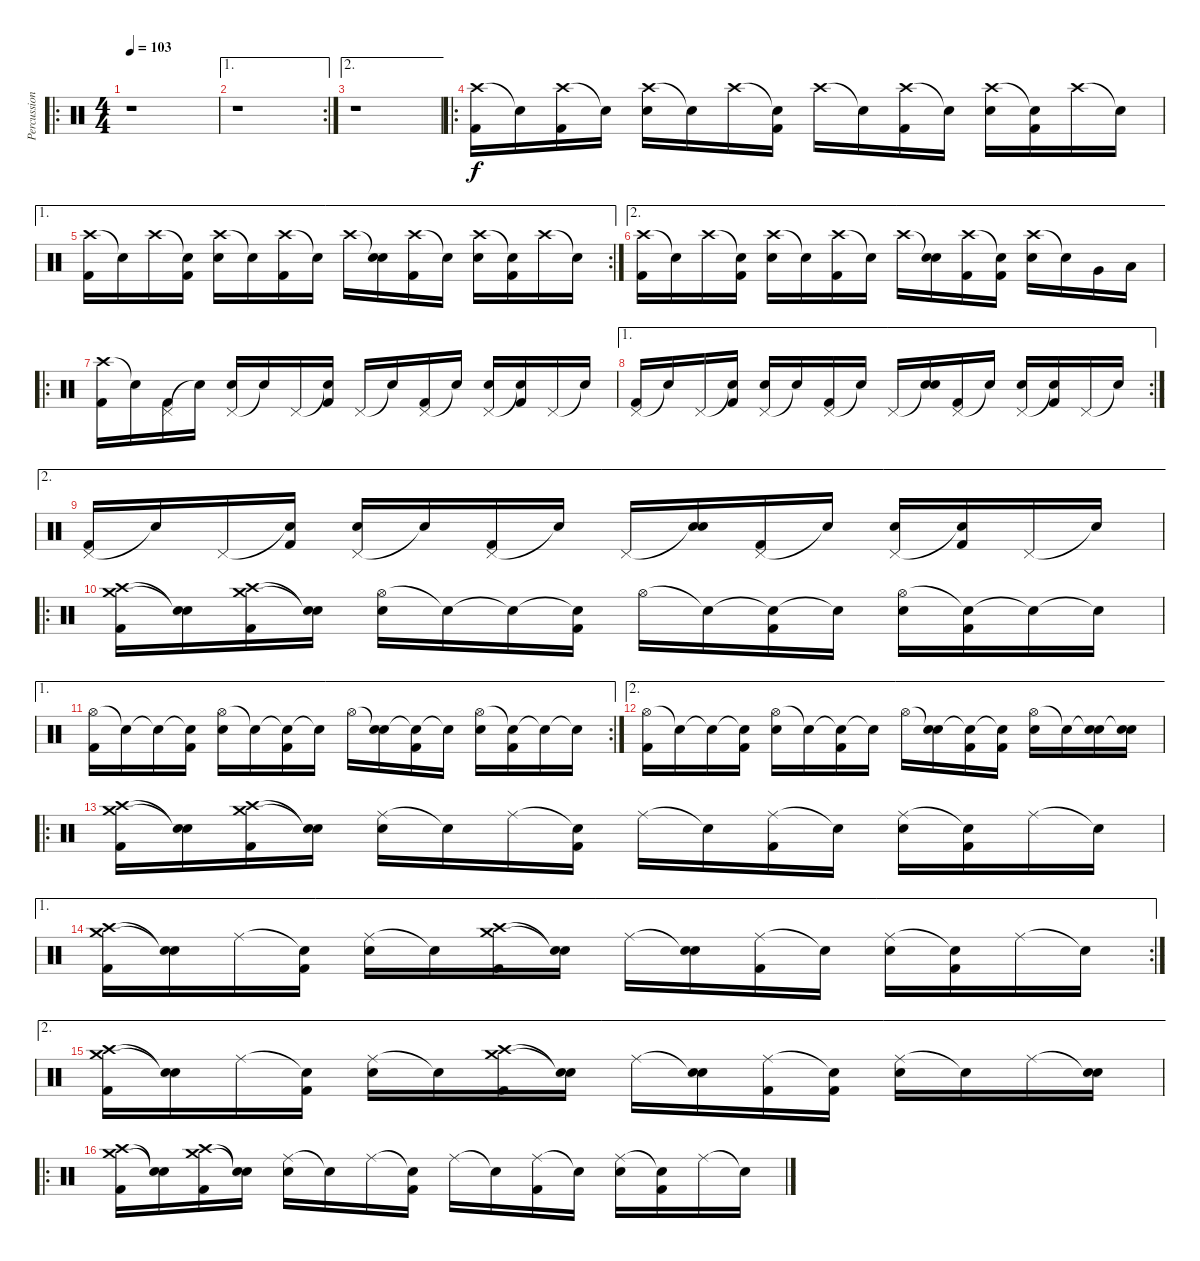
\track ("Percussion" "Percussion") {instrument percussion}
\staff {score}
\articulation defaults
\ro
\ts (4 4)
\tempo 103
\clef neutral
\ks c
r.1{dy f} |
\ae 1
\rc 2
r.1 |
\ae 2
r.1 |
\ro
("Crash high (hit)" "Kick (hit) 2").16 "Snare (hit)"{t}.16 ("Crash high (hit)" "Kick (hit) 2").16 "Snare (hit)"{t}.16 ("Crash high (hit)" "Snare (hit) 2").16 "Snare (hit)"{t}.16 "Crash high (hit)".16 ("Snare (hit)"{t} "Kick (hit) 2").16 "Crash high (hit)".16 "Snare (hit)"{t}.16 ("Crash high (hit)" "Kick (hit) 2").16 "Snare (hit)"{t}.16 ("Crash high (hit)" "Snare (hit) 2").16 ("Snare (hit)"{t} "Kick (hit) 2").16 "Crash high (hit)".16 "Snare (hit)"{t}.16 |
\ae 1
\rc 2
("Crash high (hit)" "Kick (hit) 2").16 "Snare (hit)"{t}.16 "Crash high (hit)".16 ("Snare (hit)"{t} "Kick (hit) 2").16 ("Crash high (hit)" "Snare (hit) 2").16 "Snare (hit)"{t}.16 ("Crash high (hit)" "Kick (hit) 2").16 "Snare (hit)"{t}.16 "Crash high (hit)".16 ("Snare (hit)"{t} "Snare (hit) 2").16 ("Crash high (hit)" "Kick (hit) 2").16 "Snare (hit)"{t}.16 ("Crash high (hit)" "Snare (hit) 2").16 ("Snare (hit)"{t} "Kick (hit) 2").16 "Crash high (hit)".16 "Snare (hit)"{t}.16 |
\ae 2
("Crash high (hit)" "Kick (hit) 2").16 "Snare (hit)"{t}.16 "Crash high (hit)".16 ("Snare (hit)"{t} "Kick (hit) 2").16 ("Crash high (hit)" "Snare (hit) 2").16 "Snare (hit)"{t}.16 ("Crash high (hit)" "Kick (hit) 2").16 "Snare (hit)"{t}.16 "Crash high (hit)".16 ("Snare (hit)"{t} "Snare (hit) 2").16 ("Crash high (hit)" "Kick (hit) 2").16 ("Snare (hit)"{t} "Kick (hit) 2").16 ("Crash high (hit)" "Snare (hit) 2").16 "Snare (hit)"{t}.16 "Very Low Tom (hit)".16 "Low Floor Tom (hit)".16 |
\ro
("Crash high (hit)" "Kick (hit) 2").16 "Snare (hit)"{t}.16 ("Pedal Hi-Hat (hit)" "Kick (hit) 2").16 "Snare (hit)"{t}.16 ("Pedal Hi-Hat (hit)" "Snare (hit) 2").16 "Snare (hit)"{t}.16 "Pedal Hi-Hat (hit)".16 ("Snare (hit)"{t} "Kick (hit) 2").16 "Pedal Hi-Hat (hit)".16 "Snare (hit)"{t}.16 ("Pedal Hi-Hat (hit)" "Kick (hit) 2").16 "Snare (hit)"{t}.16 ("Pedal Hi-Hat (hit)" "Snare (hit) 2").16 ("Snare (hit)"{t} "Kick (hit) 2").16 "Pedal Hi-Hat (hit)".16 "Snare (hit)"{t}.16 |
\ae 1
\rc 2
("Pedal Hi-Hat (hit)" "Kick (hit) 2").16 "Snare (hit)"{t}.16 "Pedal Hi-Hat (hit)".16 ("Snare (hit)"{t} "Kick (hit) 2").16 ("Pedal Hi-Hat (hit)" "Snare (hit) 2").16 "Snare (hit)"{t}.16 ("Pedal Hi-Hat (hit)" "Kick (hit) 2").16 "Snare (hit)"{t}.16 "Pedal Hi-Hat (hit)".16 ("Snare (hit)"{t} "Snare (hit) 2").16 ("Pedal Hi-Hat (hit)" "Kick (hit) 2").16 "Snare (hit)"{t}.16 ("Pedal Hi-Hat (hit)" "Snare (hit) 2").16 ("Snare (hit)"{t} "Kick (hit) 2").16 "Pedal Hi-Hat (hit)".16 "Snare (hit)"{t}.16 |
\ae 2
("Pedal Hi-Hat (hit)" "Kick (hit) 2").16 "Snare (hit)"{t}.16 "Pedal Hi-Hat (hit)".16 ("Snare (hit)"{t} "Kick (hit) 2").16 ("Pedal Hi-Hat (hit)" "Snare (hit) 2").16 "Snare (hit)"{t}.16 ("Pedal Hi-Hat (hit)" "Kick (hit) 2").16 "Snare (hit)"{t}.16 "Pedal Hi-Hat (hit)".16 ("Snare (hit)"{t} "Snare (hit) 2").16 ("Pedal Hi-Hat (hit)" "Kick (hit) 2").16 "Snare (hit)"{t}.16 ("Pedal Hi-Hat (hit)" "Snare (hit) 2").16 ("Snare (hit)"{t} "Kick (hit) 2").16 "Pedal Hi-Hat (hit)".16 "Snare (hit)"{t}.16 |
\ro
("Crash medium (hit)" "Crash high (hit)" "Kick (hit) 2").16 ("Snare (hit)"{t} "Snare (hit)"{t}).16 ("Crash medium (hit)" "Crash high (hit)" "Kick (hit) 2").16 ("Snare (hit)"{t} "Snare (hit)"{t}).16 ("Hi-Hat (open)" "Snare (hit) 2").16 "Snare (hit)"{t}.16 "Snare (hit)"{t}.16 ("Snare (hit)"{t} "Kick (hit) 2").16 "Hi-Hat (open)".16 "Snare (hit)"{t}.16 ("Snare (hit)"{t} "Kick (hit) 2").16 "Snare (hit)"{t}.16 ("Hi-Hat (open)" "Snare (hit) 2").16 ("Snare (hit)"{t} "Kick (hit) 2").16 "Snare (hit)"{t}.16 "Snare (hit)"{t}.16 |
\ae 1
\rc 2
("Hi-Hat (open)" "Kick (hit) 2").16 "Snare (hit)"{t}.16 "Snare (hit)"{t}.16 ("Snare (hit)"{t} "Kick (hit) 2").16 ("Hi-Hat (open)" "Snare (hit) 2").16 "Snare (hit)"{t}.16 ("Snare (hit)"{t} "Kick (hit) 2").16 "Snare (hit)"{t}.16 "Hi-Hat (open)".16 ("Snare (hit)"{t} "Snare (hit) 2").16 ("Snare (hit)"{t} "Kick (hit) 2").16 "Snare (hit)"{t}.16 ("Hi-Hat (open)" "Snare (hit) 2").16 ("Snare (hit)"{t} "Kick (hit) 2").16 "Snare (hit)"{t}.16 "Snare (hit)"{t}.16 |
\ae 2
("Hi-Hat (open)" "Kick (hit) 2").16 "Snare (hit)"{t}.16 "Snare (hit)"{t}.16 ("Snare (hit)"{t} "Kick (hit) 2").16 ("Hi-Hat (open)" "Snare (hit) 2").16 "Snare (hit)"{t}.16 ("Snare (hit)"{t} "Kick (hit) 2").16 "Snare (hit)"{t}.16 "Hi-Hat (open)".16 ("Snare (hit)"{t} "Snare (hit) 2").16 ("Snare (hit)"{t} "Kick (hit) 2").16 ("Snare (hit)"{t} "Kick (hit) 2").16 ("Hi-Hat (open)" "Snare (hit) 2").16 "Snare (hit)"{t}.16 ("Snare (hit)"{t} "Snare (hit) 2").16 ("Snare (hit)"{t} "Snare (hit) 2").16 |
\ro
("Crash medium (hit)" "Crash high (hit)" "Kick (hit) 2").16 ("Snare (hit)"{t} "Snare (hit)"{t}).16 ("Crash medium (hit)" "Crash high (hit)" "Kick (hit) 2").16 ("Snare (hit)"{t} "Snare (hit)"{t}).16 ("Ride (middle)" "Snare (hit) 2").16 "Snare (hit)"{t}.16 "Ride (middle)".16 ("Snare (hit)"{t} "Kick (hit) 2").16 "Ride (middle)".16 "Snare (hit)"{t}.16 ("Ride (middle)" "Kick (hit) 2").16 "Snare (hit)"{t}.16 ("Ride (middle)" "Snare (hit) 2").16 ("Snare (hit)"{t} "Kick (hit) 2").16 "Ride (middle)".16 "Snare (hit)"{t}.16 |
\ae 1
\rc 2
("Crash medium (hit)" "Crash high (hit)" "Kick (hit) 2").16 ("Snare (hit)"{t} "Snare (hit)"{t}).16 "Ride (middle)".16 ("Snare (hit)"{t} "Kick (hit) 2").16 ("Ride (middle)" "Snare (hit) 2").16 "Snare (hit)"{t}.16 ("Crash medium (hit)" "Crash high (hit)" "Kick (hit) 2").16 ("Snare (hit)"{t} "Snare (hit)"{t}).16 "Ride (middle)".16 ("Snare (hit)"{t} "Snare (hit) 2").16 ("Ride (middle)" "Kick (hit) 2").16 "Snare (hit)"{t}.16 ("Ride (middle)" "Snare (hit) 2").16 ("Snare (hit)"{t} "Kick (hit) 2").16 "Ride (middle)".16 "Snare (hit)"{t}.16 |
\ae 2
("Crash medium (hit)" "Crash high (hit)" "Kick (hit) 2").16 ("Snare (hit)"{t} "Snare (hit)"{t}).16 "Ride (middle)".16 ("Snare (hit)"{t} "Kick (hit) 2").16 ("Ride (middle)" "Snare (hit) 2").16 "Snare (hit)"{t}.16 ("Crash medium (hit)" "Crash high (hit)" "Kick (hit) 2").16 ("Snare (hit)"{t} "Snare (hit)"{t}).16 "Ride (middle)".16 ("Snare (hit)"{t} "Snare (hit) 2").16 ("Ride (middle)" "Kick (hit) 2").16 ("Snare (hit)"{t} "Kick (hit) 2").16 ("Ride (middle)" "Snare (hit) 2").16 "Snare (hit)"{t}.16 "Ride (middle)".16 ("Snare (hit)"{t} "Snare (hit) 2").16 |
\ro
("Crash medium (hit)" "Crash high (hit)" "Kick (hit) 2").16 ("Snare (hit)"{t} "Snare (hit)"{t}).16 ("Crash medium (hit)" "Crash high (hit)" "Kick (hit) 2").16 ("Snare (hit)"{t} "Snare (hit)"{t}).16 ("Ride (middle)" "Snare (hit) 2").16 "Snare (hit)"{t}.16 "Ride (middle)".16 ("Snare (hit)"{t} "Kick (hit) 2").16 "Ride (middle)".16 "Snare (hit)"{t}.16 ("Ride (middle)" "Kick (hit) 2").16 "Snare (hit)"{t}.16 ("Ride (middle)" "Snare (hit) 2").16 ("Snare (hit)"{t} "Kick (hit) 2").16 "Ride (middle)".16 "Snare (hit)"{t}.16
